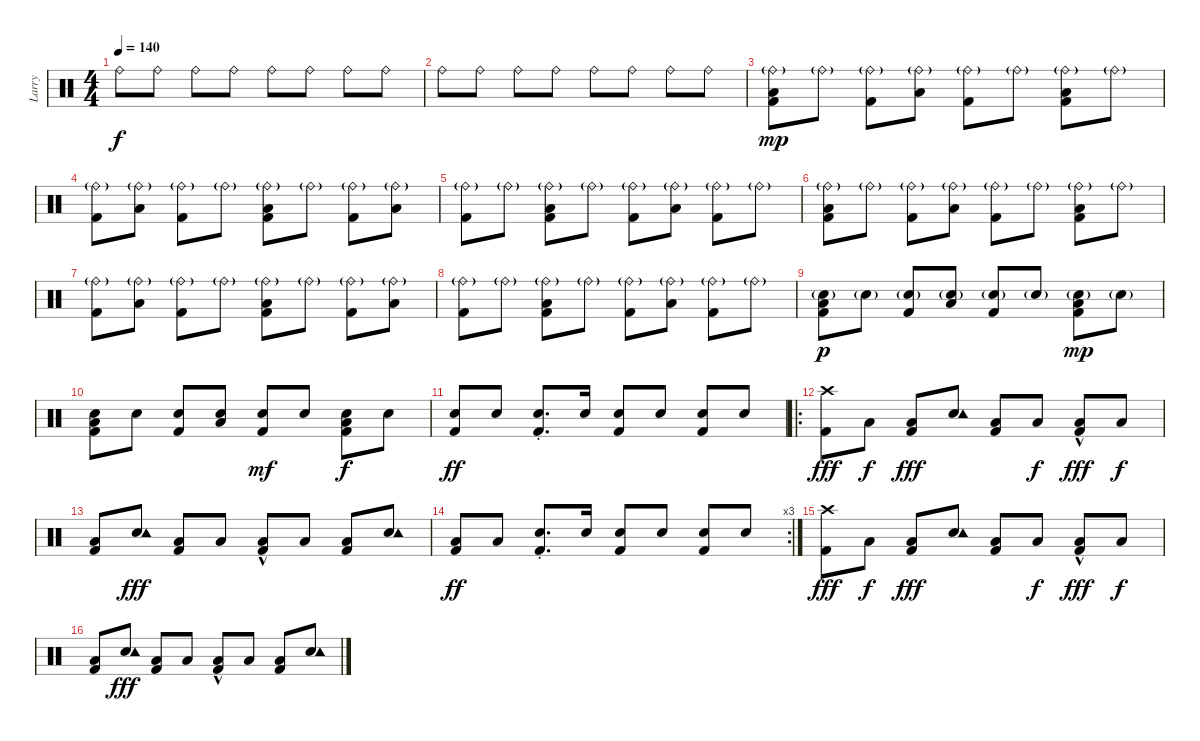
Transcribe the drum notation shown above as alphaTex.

\track ("Larry" "Larry") {instrument percussion}
\staff {score}
\articulation defaults
\ts (4 4)
\tempo 140
\clef neutral
\ks c "Ride (bell)".8{dy f} "Ride (bell)".8 "Ride (bell)".8 "Ride (bell)".8 "Ride (bell)".8 "Ride (bell)".8 "Ride (bell)".8 "Ride (bell)".8
|
"Ride (bell)".8 "Ride (bell)".8 "Ride (bell)".8 "Ride (bell)".8 "Ride (bell)".8 "Ride (bell)".8 "Ride (bell)".8 "Ride (bell)".8 |
("Ride (bell)"{g} "Low Floor Tom (hit)" "Kick (hit) 2").8{dy mp} "Ride (bell)"{g}.8 ("Ride (bell)"{g} "Kick (hit) 2").8 ("Ride (bell)"{g} "Low Floor Tom (hit)").8 ("Ride (bell)"{g} "Kick (hit) 2").8 "Ride (bell)"{g}.8 ("Ride (bell)"{g} "Low Floor Tom (hit)" "Kick (hit) 2").8 "Ride (bell)"{g}.8 |
("Ride (bell)"{g} "Kick (hit) 2").8 ("Ride (bell)"{g} "Low Floor Tom (hit)").8 ("Ride (bell)"{g} "Kick (hit) 2").8 "Ride (bell)"{g}.8 ("Ride (bell)"{g} "Low Floor Tom (hit)" "Kick (hit) 2").8 "Ride (bell)"{g}.8 ("Ride (bell)"{g} "Kick (hit) 2").8 ("Ride (bell)"{g} "Low Floor Tom (hit)").8 |
("Ride (bell)"{g} "Kick (hit) 2").8 "Ride (bell)"{g}.8 ("Ride (bell)"{g} "Low Floor Tom (hit)" "Kick (hit) 2").8 "Ride (bell)"{g}.8 ("Ride (bell)"{g} "Kick (hit) 2").8 ("Ride (bell)"{g} "Low Floor Tom (hit)").8 ("Ride (bell)"{g} "Kick (hit) 2").8 "Ride (bell)"{g}.8 |
("Ride (bell)"{g} "Low Floor Tom (hit)" "Kick (hit) 2").8 "Ride (bell)"{g}.8 ("Ride (bell)"{g} "Kick (hit) 2").8 ("Ride (bell)"{g} "Low Floor Tom (hit)").8 ("Ride (bell)"{g} "Kick (hit) 2").8 "Ride (bell)"{g}.8 ("Ride (bell)"{g} "Low Floor Tom (hit)" "Kick (hit) 2").8 "Ride (bell)"{g}.8 |
("Ride (bell)"{g} "Kick (hit) 2").8 ("Ride (bell)"{g} "Low Floor Tom (hit)").8 ("Ride (bell)"{g} "Kick (hit) 2").8 "Ride (bell)"{g}.8 ("Ride (bell)"{g} "Low Floor Tom (hit)" "Kick (hit) 2").8 "Ride (bell)"{g}.8 ("Ride (bell)"{g} "Kick (hit) 2").8 ("Ride (bell)"{g} "Low Floor Tom (hit)").8 |
("Ride (bell)"{g} "Kick (hit) 2").8 "Ride (bell)"{g}.8 ("Ride (bell)"{g} "Low Floor Tom (hit)" "Kick (hit) 2").8 "Ride (bell)"{g}.8 ("Ride (bell)"{g} "Kick (hit) 2").8 ("Ride (bell)"{g} "Low Floor Tom (hit)").8 ("Ride (bell)"{g} "Kick (hit) 2").8 "Ride (bell)"{g}.8 |
("Electric Snare (hit)"{g} "Low Floor Tom (hit)" "Kick (hit) 2").8{dy p} "Electric Snare (hit)"{g}.8 ("Electric Snare (hit)"{g} "Kick (hit) 2").8 ("Electric Snare (hit)"{g} "Low Floor Tom (hit)").8 ("Electric Snare (hit)"{g} "Kick (hit) 2").8 "Electric Snare (hit)"{g}.8 ("Electric Snare (hit)"{g} "Low Floor Tom (hit)" "Kick (hit) 2").8{dy mp} "Electric Snare (hit)"{g}.8 |
("Electric Snare (hit)" "Low Floor Tom (hit)" "Kick (hit) 2").8 "Electric Snare (hit)".8 ("Electric Snare (hit)" "Kick (hit) 2").8 ("Electric Snare (hit)" "Low Floor Tom (hit)").8 ("Electric Snare (hit)" "Kick (hit) 2").8{dy mf} "Electric Snare (hit)".8 ("Electric Snare (hit)" "Low Floor Tom (hit)" "Kick (hit) 2").8{dy f} "Electric Snare (hit)".8 |
("Electric Snare (hit)" "Kick (hit) 2").8{dy ff} "Electric Snare (hit)".8 ("Electric Snare (hit)"{st} "Kick (hit) 2").8{d} "Electric Snare (hit)".16 ("Electric Snare (hit)" "Kick (hit) 2").8 "Electric Snare (hit)".8 ("Electric Snare (hit)" "Kick (hit) 2").8 "Electric Snare (hit)".8 |
\ro
("Crash high (hit)" "Kick (hit) 2").8{dy fff} "Low Floor Tom (hit)".8{dy f} ("Low Floor Tom (hit)" "Kick (hit) 2").8{dy fff} ("Electric Snare (hit)" "Tambourine (hit)").8 ("Low Floor Tom (hit)" "Kick (hit) 2").8 "Low Floor Tom (hit)".8{dy f} ("Low Floor Tom (hit)"{hac} "Kick (hit) 2").8{dy fff} "Low Floor Tom (hit)".8{dy f} |
("Low Floor Tom (hit)" "Kick (hit) 2").8 ("Electric Snare (hit)" "Tambourine (hit)").8{dy fff} ("Low Floor Tom (hit)" "Kick (hit) 2").8 "Low Floor Tom (hit)".8 ("Low Floor Tom (hit)"{hac} "Kick (hit) 2").8 "Low Floor Tom (hit)".8 ("Low Floor Tom (hit)" "Kick (hit) 2").8 ("Electric Snare (hit)" "Tambourine (hit)").8 |
\rc 3
("Low Floor Tom (hit)" "Kick (hit) 2").8{dy ff} "Low Floor Tom (hit)".8 ("Electric Snare (hit)"{st} "Kick (hit) 2").8{d} "Electric Snare (hit)".16 ("Electric Snare (hit)" "Kick (hit) 2").8 "Electric Snare (hit)".8 ("Electric Snare (hit)" "Kick (hit) 2").8 "Electric Snare (hit)".8 |
("Crash high (hit)" "Kick (hit) 2").8{dy fff} "Low Floor Tom (hit)".8{dy f} ("Low Floor Tom (hit)" "Kick (hit) 2").8{dy fff} ("Electric Snare (hit)" "Tambourine (hit)").8 ("Low Floor Tom (hit)" "Kick (hit) 2").8 "Low Floor Tom (hit)".8{dy f} ("Low Floor Tom (hit)"{hac} "Kick (hit) 2").8{dy fff} "Low Floor Tom (hit)".8{dy f} |
("Low Floor Tom (hit)" "Kick (hit) 2").8 ("Electric Snare (hit)" "Tambourine (hit)").8{dy fff} ("Low Floor Tom (hit)" "Kick (hit) 2").8 "Low Floor Tom (hit)".8 ("Low Floor Tom (hit)"{hac} "Kick (hit) 2").8 "Low Floor Tom (hit)".8 ("Low Floor Tom (hit)" "Kick (hit) 2").8 ("Electric Snare (hit)" "Tambourine (hit)").8
